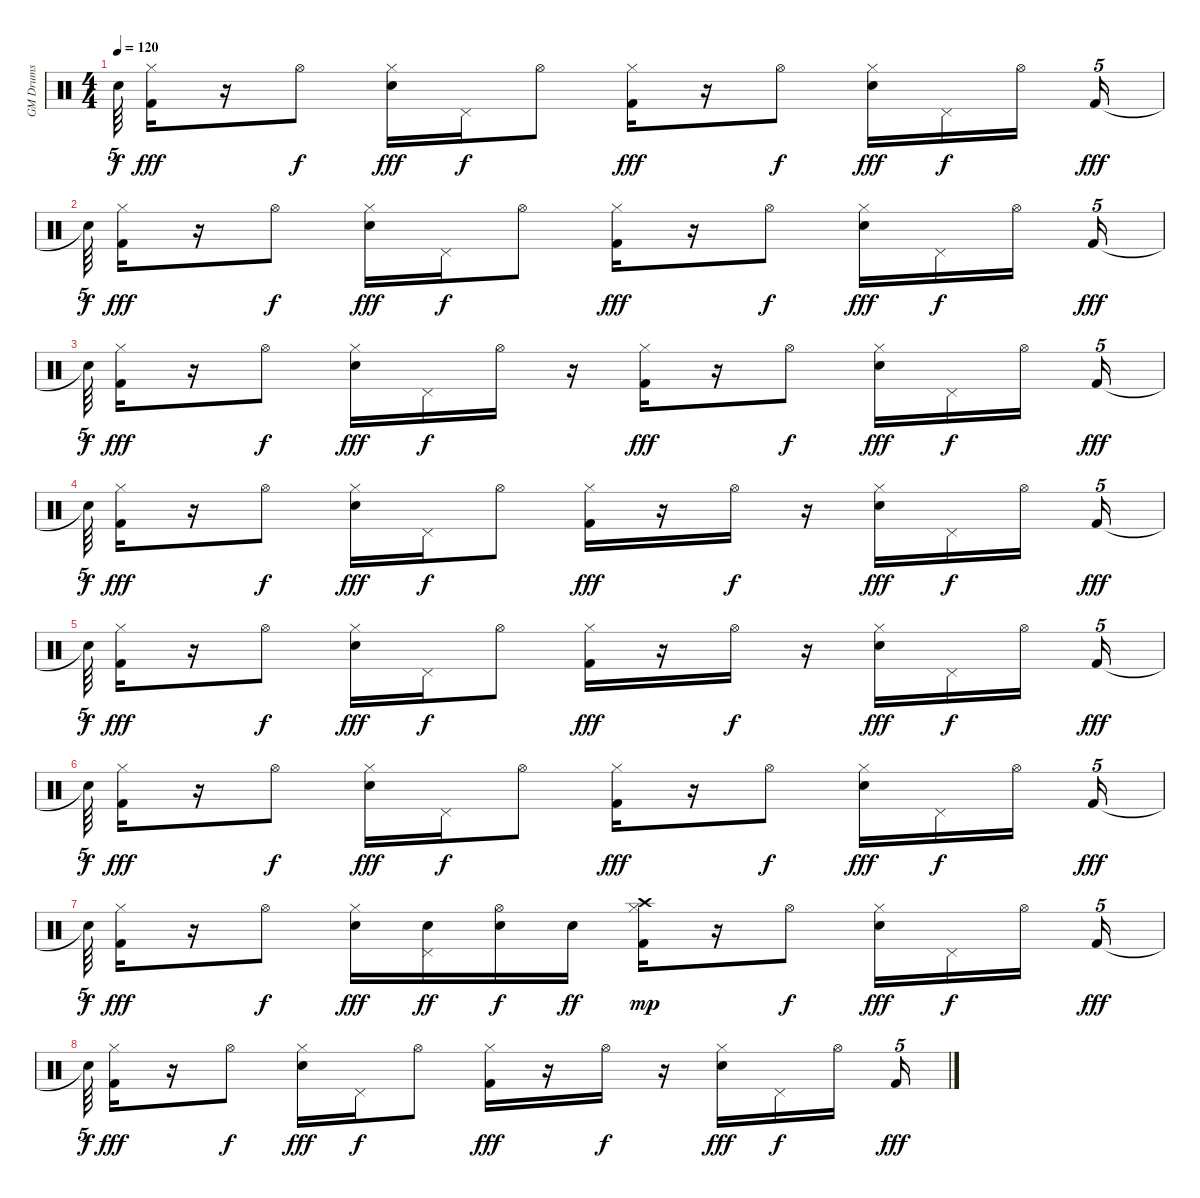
\track ("GM Drums" "GM Drums") {instrument percussion}
\staff {score}
\articulation defaults
\ts (4 4)
\tempo 120
\clef neutral
\ks c "Snare (hit)"{t}.64{tu (5 4) dy f}
("Kick (hit) 2" "Hi-Hat (closed)").16{dy fff} r.16 "Hi-Hat (open)".8{dy f} ("Electric Snare (hit)" "Hi-Hat (closed)").16{dy fff} "Pedal Hi-Hat (hit)".16{dy f} "Hi-Hat (open)".8 ("Kick (hit) 2" "Hi-Hat (closed)").16{dy fff} r.16 "Hi-Hat (open)".8{dy f} ("Electric Snare (hit)" "Hi-Hat (closed)").16{dy fff} "Pedal Hi-Hat (hit)".16{dy f} "Hi-Hat (open)".16 "Kick (hit) 2".16{tu (5 4) dy fff} |
"Snare (hit)"{t}.64{tu (5 4) dy f} ("Kick (hit) 2" "Hi-Hat (closed)").16{dy fff} r.16 "Hi-Hat (open)".8{dy f} ("Electric Snare (hit)" "Hi-Hat (closed)").16{dy fff} "Pedal Hi-Hat (hit)".16{dy f} "Hi-Hat (open)".8 ("Kick (hit) 2" "Hi-Hat (closed)").16{dy fff} r.16 "Hi-Hat (open)".8{dy f} ("Electric Snare (hit)" "Hi-Hat (closed)").16{dy fff} "Pedal Hi-Hat (hit)".16{dy f} "Hi-Hat (open)".16 "Kick (hit) 2".16{tu (5 4) dy fff} |
"Snare (hit)"{t}.64{tu (5 4) dy f} ("Kick (hit) 2" "Hi-Hat (closed)").16{dy fff} r.16 "Hi-Hat (open)".8{dy f} ("Electric Snare (hit)" "Hi-Hat (closed)").16{dy fff} "Pedal Hi-Hat (hit)".16{dy f} "Hi-Hat (open)".16 r.16 ("Kick (hit) 2" "Hi-Hat (closed)").16{dy fff} r.16 "Hi-Hat (open)".8{dy f} ("Electric Snare (hit)" "Hi-Hat (closed)").16{dy fff} "Pedal Hi-Hat (hit)".16{dy f} "Hi-Hat (open)".16 "Kick (hit) 2".16{tu (5 4) dy fff} |
"Snare (hit)"{t}.64{tu (5 4) dy f} ("Kick (hit) 2" "Hi-Hat (closed)").16{dy fff} r.16 "Hi-Hat (open)".8{dy f} ("Electric Snare (hit)" "Hi-Hat (closed)").16{dy fff} "Pedal Hi-Hat (hit)".16{dy f} "Hi-Hat (open)".8 ("Kick (hit) 2" "Hi-Hat (closed)").16{dy fff} r.16 "Hi-Hat (open)".16{dy f} r.16 ("Electric Snare (hit)" "Hi-Hat (closed)").16{dy fff} "Pedal Hi-Hat (hit)".16{dy f} "Hi-Hat (open)".16 "Kick (hit) 2".16{tu (5 4) dy fff} |
"Snare (hit)"{t}.64{tu (5 4) dy f} ("Kick (hit) 2" "Hi-Hat (closed)").16{dy fff} r.16 "Hi-Hat (open)".8{dy f} ("Electric Snare (hit)" "Hi-Hat (closed)").16{dy fff} "Pedal Hi-Hat (hit)".16{dy f} "Hi-Hat (open)".8 ("Kick (hit) 2" "Hi-Hat (closed)").16{dy fff} r.16 "Hi-Hat (open)".16{dy f} r.16 ("Electric Snare (hit)" "Hi-Hat (closed)").16{dy fff} "Pedal Hi-Hat (hit)".16{dy f} "Hi-Hat (open)".16 "Kick (hit) 2".16{tu (5 4) dy fff} |
"Snare (hit)"{t}.64{tu (5 4) dy f} ("Kick (hit) 2" "Hi-Hat (closed)").16{dy fff} r.16 "Hi-Hat (open)".8{dy f} ("Electric Snare (hit)" "Hi-Hat (closed)").16{dy fff} "Pedal Hi-Hat (hit)".16{dy f} "Hi-Hat (open)".8 ("Kick (hit) 2" "Hi-Hat (closed)").16{dy fff} r.16 "Hi-Hat (open)".8{dy f} ("Electric Snare (hit)" "Hi-Hat (closed)").16{dy fff} "Pedal Hi-Hat (hit)".16{dy f} "Hi-Hat (open)".16 "Kick (hit) 2".16{tu (5 4) dy fff} |
"Snare (hit)"{t}.64{tu (5 4) dy f} ("Kick (hit) 2" "Hi-Hat (closed)").16{dy fff} r.16 "Hi-Hat (open)".8{dy f} ("Electric Snare (hit)" "Hi-Hat (closed)").16{dy fff} ("Electric Snare (hit)" "Pedal Hi-Hat (hit)").16{dy ff} ("Electric Snare (hit)" "Hi-Hat (open)").16{dy f} "Electric Snare (hit)".16{dy ff} ("Kick (hit) 2" "Hi-Hat (closed)" "Crash high (hit)").16{dy mp} r.16 "Hi-Hat (open)".8{dy f} ("Electric Snare (hit)" "Hi-Hat (closed)").16{dy fff} "Pedal Hi-Hat (hit)".16{dy f} "Hi-Hat (open)".16 "Kick (hit) 2".16{tu (5 4) dy fff} |
"Snare (hit)"{t}.64{tu (5 4) dy f} ("Kick (hit) 2" "Hi-Hat (closed)").16{dy fff} r.16 "Hi-Hat (open)".8{dy f} ("Electric Snare (hit)" "Hi-Hat (closed)").16{dy fff} "Pedal Hi-Hat (hit)".16{dy f} "Hi-Hat (open)".8 ("Kick (hit) 2" "Hi-Hat (closed)").16{dy fff} r.16 "Hi-Hat (open)".16{dy f} r.16 ("Electric Snare (hit)" "Hi-Hat (closed)").16{dy fff} "Pedal Hi-Hat (hit)".16{dy f} "Hi-Hat (open)".16 "Kick (hit) 2".16{tu (5 4) dy fff}
